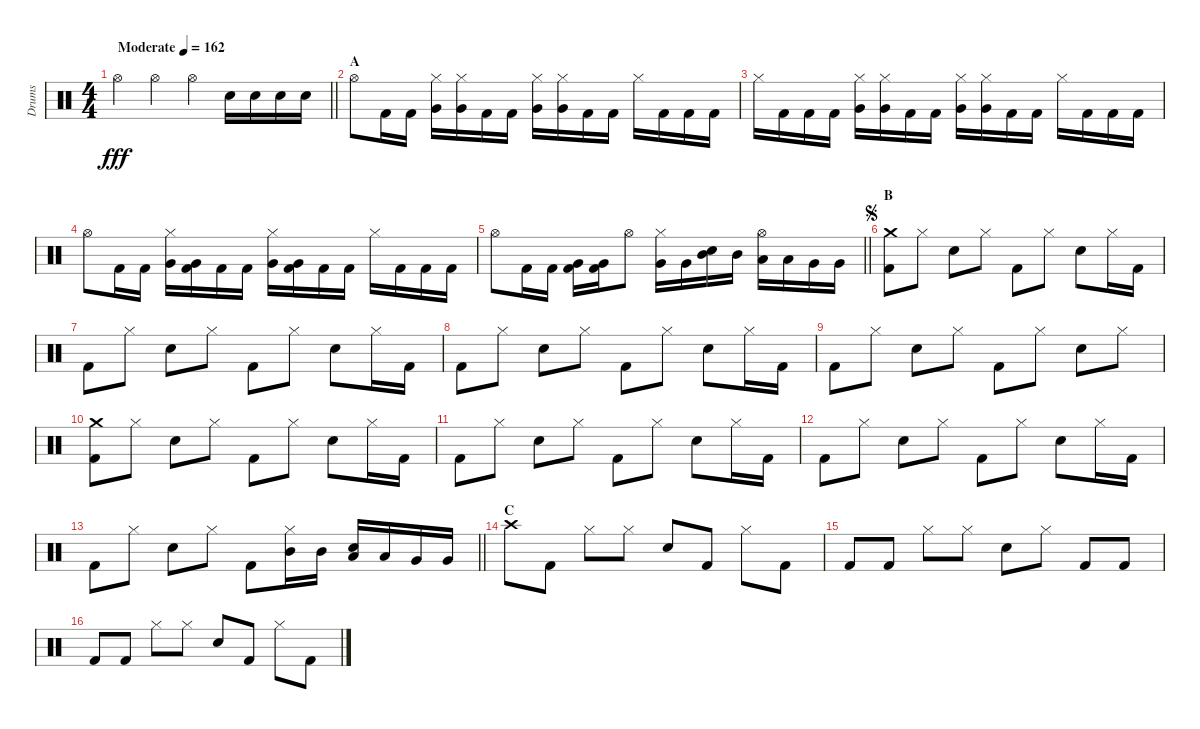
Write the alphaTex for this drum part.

\track ("Drums" "Drums") {instrument percussion}
\staff {score}
\articulation defaults
\ts (4 4)
\tempo (162 "Moderate")
\clef neutral
\barLineRight lightlight
\ks c "Hi-Hat (open)".4{dy fff} "Hi-Hat (open)".4 "Hi-Hat (open)".4 "Electric Snare (hit)".16 "Electric Snare (hit)".16 "Electric Snare (hit)".16 "Electric Snare (hit)".16
|
\section ("" "A")
"Hi-Hat (open)".8 "Kick (hit) 2".16 "Kick (hit) 2".16 ("Hi-Hat (closed)" "Very Low Tom (hit)").16 ("Hi-Hat (closed)" "Very Low Tom (hit)").16 "Kick (hit) 2".16 "Kick (hit) 2".16 ("Hi-Hat (closed)" "Very Low Tom (hit)").16 ("Hi-Hat (closed)" "Very Low Tom (hit)").16 "Kick (hit) 2".16 "Kick (hit) 2".16 "Hi-Hat (closed)".16 "Kick (hit) 2".16 "Kick (hit) 2".16 "Kick (hit) 2".16 |
"Hi-Hat (closed)".16 "Kick (hit) 2".16 "Kick (hit) 2".16 "Kick (hit) 2".16 ("Hi-Hat (closed)" "Very Low Tom (hit)").16 ("Hi-Hat (closed)" "Very Low Tom (hit)").16 "Kick (hit) 2".16 "Kick (hit) 2".16 ("Hi-Hat (closed)" "Very Low Tom (hit)").16 ("Hi-Hat (closed)" "Very Low Tom (hit)").16 "Kick (hit) 2".16 "Kick (hit) 2".16 "Hi-Hat (closed)".16 "Kick (hit) 2".16 "Kick (hit) 2".16 "Kick (hit) 2".16 |
"Hi-Hat (open)".8 "Kick (hit) 2".16 "Kick (hit) 2".16 ("Hi-Hat (closed)" "Very Low Tom (hit)").16 ("Very Low Tom (hit)" "Kick (hit) 2").16 "Kick (hit) 2".16 "Kick (hit) 2".16 ("Hi-Hat (closed)" "Very Low Tom (hit)").16 ("Very Low Tom (hit)" "Kick (hit) 2").16 "Kick (hit) 2".16 "Kick (hit) 2".16 "Hi-Hat (closed)".16 "Kick (hit) 2".16 "Kick (hit) 2".16 "Kick (hit) 2".16 |
\barLineRight lightlight "Hi-Hat (open)".8 "Kick (hit) 2".16 "Kick (hit) 2".16
("Very Low Tom (hit)" "Kick (hit) 2").16 ("Very Low Tom (hit)" "Kick (hit) 2").16 "Hi-Hat (open)".8 ("Hi-Hat (closed)" "Very Low Tom (hit)").16 "Very Low Tom (hit)".16 ("Mid Tom (hit)" "Electric Snare (hit)").16 "Mid Tom (hit)".16 ("Hi-Hat (open)" "Low Tom (hit)").16 "Low Tom (hit)".16 "Very Low Tom (hit)".16 "Very Low Tom (hit)".16 |
\section ("" "B")
\jump segno
("Crash medium (hit)" "Kick (hit) 2").8 "Hi-Hat (closed)".8 "Electric Snare (hit)".8 "Hi-Hat (closed)".8 "Kick (hit) 2".8 "Hi-Hat (closed)".8 "Electric Snare (hit)".8 "Hi-Hat (closed)".16 "Kick (hit) 2".16 |
"Kick (hit) 2".8 "Hi-Hat (closed)".8 "Electric Snare (hit)".8 "Hi-Hat (closed)".8 "Kick (hit) 2".8 "Hi-Hat (closed)".8 "Electric Snare (hit)".8 "Hi-Hat (closed)".16 "Kick (hit) 2".16 |
"Kick (hit) 2".8 "Hi-Hat (closed)".8 "Electric Snare (hit)".8 "Hi-Hat (closed)".8 "Kick (hit) 2".8 "Hi-Hat (closed)".8 "Electric Snare (hit)".8 "Hi-Hat (closed)".16 "Kick (hit) 2".16 |
"Kick (hit) 2".8 "Hi-Hat (closed)".8 "Electric Snare (hit)".8 "Hi-Hat (closed)".8 "Kick (hit) 2".8 "Hi-Hat (closed)".8 "Electric Snare (hit)".8 "Hi-Hat (closed)".8 |
("Crash medium (hit)" "Kick (hit) 2").8 "Hi-Hat (closed)".8 "Electric Snare (hit)".8 "Hi-Hat (closed)".8 "Kick (hit) 2".8 "Hi-Hat (closed)".8 "Electric Snare (hit)".8 "Hi-Hat (closed)".16 "Kick (hit) 2".16 |
"Kick (hit) 2".8 "Hi-Hat (closed)".8 "Electric Snare (hit)".8 "Hi-Hat (closed)".8 "Kick (hit) 2".8 "Hi-Hat (closed)".8 "Electric Snare (hit)".8 "Hi-Hat (closed)".16 "Kick (hit) 2".16 |
"Kick (hit) 2".8 "Hi-Hat (closed)".8 "Electric Snare (hit)".8 "Hi-Hat (closed)".8 "Kick (hit) 2".8 "Hi-Hat (closed)".8 "Electric Snare (hit)".8 "Hi-Hat (closed)".16 "Kick (hit) 2".16 |
\barLineRight lightlight "Kick (hit) 2".8 "Hi-Hat (closed)".8 "Electric Snare (hit)".8 "Hi-Hat (closed)".8 "Kick (hit) 2".8
("Hi-Hat (closed)" "Mid Tom (hit)").16 "Mid Tom (hit)".16 ("Low Tom (hit)" "Electric Snare (hit)").16 "Low Tom (hit)".16 "Very Low Tom (hit)".16 "Very Low Tom (hit)".16 |
\section ("" "C")
"Crash high (hit)".8 "Kick (hit) 2".8 "Hi-Hat (closed)".8 "Hi-Hat (closed)".8 "Electric Snare (hit)".8 "Kick (hit) 2".8 "Hi-Hat (closed)".8 "Kick (hit) 2".8 |
"Kick (hit) 2".8 "Kick (hit) 2".8 "Hi-Hat (closed)".8 "Hi-Hat (closed)".8 "Electric Snare (hit)".8 "Hi-Hat (closed)".8 "Kick (hit) 2".8 "Kick (hit) 2".8 |
"Kick (hit) 2".8 "Kick (hit) 2".8 "Hi-Hat (closed)".8 "Hi-Hat (closed)".8 "Electric Snare (hit)".8 "Kick (hit) 2".8 "Hi-Hat (closed)".8 "Kick (hit) 2".8
